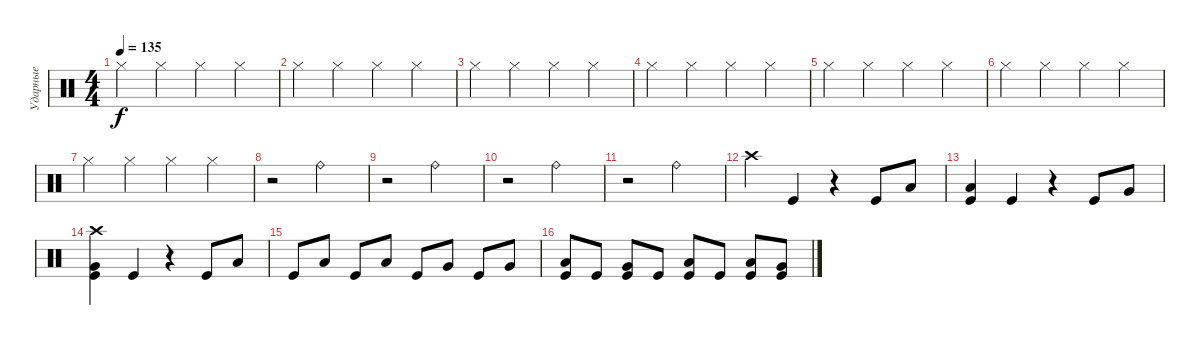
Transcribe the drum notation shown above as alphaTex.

\track ("Ударные" "Ударные") {instrument percussion}
\staff {score}
\articulation defaults
\ts (4 4)
\tempo 135
\clef neutral
\ks c "Hi-Hat (closed)".4{dy f} "Hi-Hat (closed)".4 "Hi-Hat (closed)".4 "Hi-Hat (closed)".4
|
"Hi-Hat (closed)".4 "Hi-Hat (closed)".4 "Hi-Hat (closed)".4 "Hi-Hat (closed)".4 |
"Hi-Hat (closed)".4 "Hi-Hat (closed)".4 "Hi-Hat (closed)".4 "Hi-Hat (closed)".4 |
"Hi-Hat (closed)".4 "Hi-Hat (closed)".4 "Hi-Hat (closed)".4 "Hi-Hat (closed)".4 |
"Hi-Hat (closed)".4 "Hi-Hat (closed)".4 "Hi-Hat (closed)".4 "Hi-Hat (closed)".4 |
"Hi-Hat (closed)".4 "Hi-Hat (closed)".4 "Hi-Hat (closed)".4 "Hi-Hat (closed)".4 |
"Hi-Hat (closed)".4 "Hi-Hat (closed)".4 "Hi-Hat (closed)".4 "Hi-Hat (closed)".4 |
r.2 "Ride (bell)".2 |
r.2 "Ride (bell)".2 |
r.2 "Ride (bell)".2 |
r.2 "Ride (bell)".2 |
"Crash high (hit)".4 "Kick (hit)".4 r.4 "Kick (hit)".8 "Low Tom (hit)".8 |
("Low Tom (hit)" "Kick (hit)").4 "Kick (hit)".4 r.4 "Kick (hit)".8 "Very Low Tom (hit)".8 |
("Crash high (hit)" "Very Low Tom (hit)" "Kick (hit)").4 "Kick (hit)".4 r.4 "Kick (hit)".8 "Low Tom (hit)".8 |
"Kick (hit)".8 "Low Tom (hit)".8 "Kick (hit)".8 "Low Tom (hit)".8 "Kick (hit)".8 "Very Low Tom (hit)".8 "Kick (hit)".8 "Very Low Tom (hit)".8 |
("Low Tom (hit)" "Kick (hit)").8 "Kick (hit)".8 ("Very Low Tom (hit)" "Kick (hit)").8 "Kick (hit)".8 ("Low Tom (hit)" "Kick (hit)").8 "Kick (hit)".8 ("Low Tom (hit)" "Kick (hit)").8 ("Very Low Tom (hit)" "Kick (hit)").8
